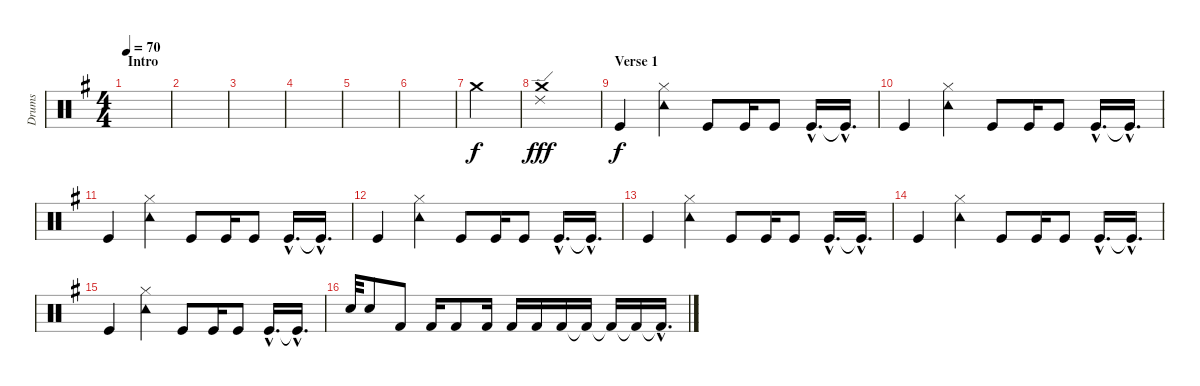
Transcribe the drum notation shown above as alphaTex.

\track ("Drums" "Drums") {instrument percussion}
\staff {score}
\articulation defaults
\ts (4 4)
\section ("" "Intro")
\tempo 70
\clef neutral
\ks g
|
|
|
|
|
|
"Crash medium (hit)".4 |
("Crash medium (hit)" "Ride (edge) 2").1{dy fff} |
\section ("" "Verse 1")
"Kick (hit)".4{dy f} ("Hi-Hat (closed)" "Tambourine (hit)").4 "Kick (hit)".8 "Kick (hit)".16 "Kick (hit)".8 "Kick (hit)"{hac}.16{d} "Kick (hit)"{hac t}.16{d} |
"Kick (hit)".4 ("Hi-Hat (closed)" "Tambourine (hit)").4 "Kick (hit)".8 "Kick (hit)".16 "Kick (hit)".8 "Kick (hit)"{hac}.16{d} "Kick (hit)"{hac t}.16{d} |
"Kick (hit)".4 ("Hi-Hat (closed)" "Tambourine (hit)").4 "Kick (hit)".8 "Kick (hit)".16 "Kick (hit)".8 "Kick (hit)"{hac}.16{d} "Kick (hit)"{hac t}.16{d} |
"Kick (hit)".4 ("Hi-Hat (closed)" "Tambourine (hit)").4 "Kick (hit)".8 "Kick (hit)".16 "Kick (hit)".8 "Kick (hit)"{hac}.16{d} "Kick (hit)"{hac t}.16{d} |
"Kick (hit)".4 ("Hi-Hat (closed)" "Tambourine (hit)").4 "Kick (hit)".8 "Kick (hit)".16 "Kick (hit)".8 "Kick (hit)"{hac}.16{d} "Kick (hit)"{hac t}.16{d} |
"Kick (hit)".4 ("Hi-Hat (closed)" "Tambourine (hit)").4 "Kick (hit)".8 "Kick (hit)".16 "Kick (hit)".8 "Kick (hit)"{hac}.16{d} "Kick (hit)"{hac t}.16{d} |
"Kick (hit)".4 ("Hi-Hat (closed)" "Tambourine (hit)").4 "Kick (hit)".8 "Kick (hit)".16 "Kick (hit)".8 "Kick (hit)"{hac}.16{d} "Kick (hit)"{hac t}.16{d} |
"Snare (hit) 2".32 "Snare (hit) 2".8 "Kick (hit) 2".8 "Kick (hit) 2".16 "Kick (hit) 2".8 "Kick (hit) 2".16 "Kick (hit) 2".16 "Kick (hit) 2".16 "Kick (hit) 2".16 "Kick (hit) 2"{t}.16 "Kick (hit) 2"{t}.16 "Kick (hit) 2"{t}.16 "Kick (hit) 2"{hac t}.16{d}
